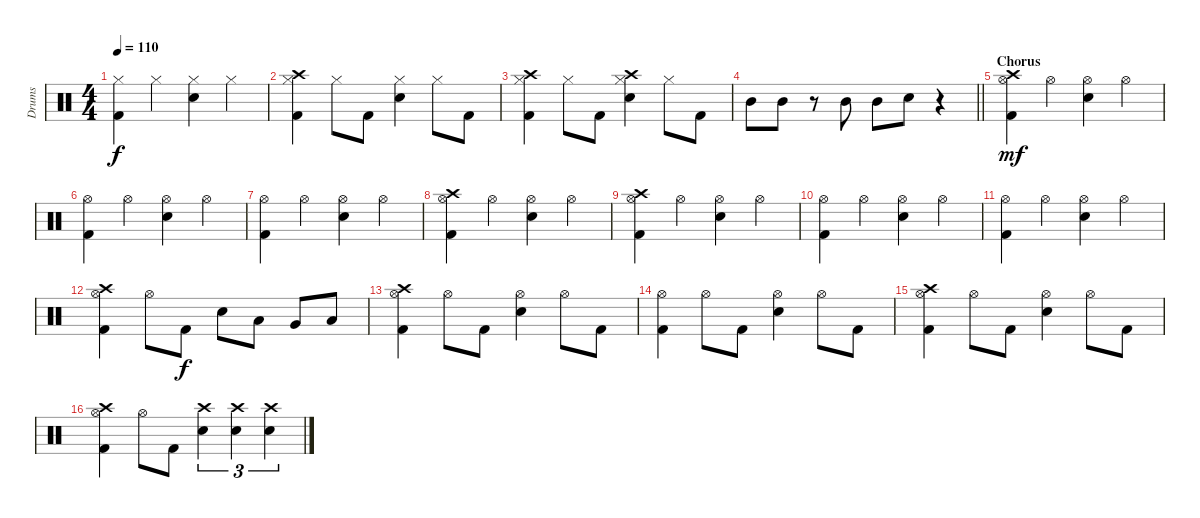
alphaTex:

\track ("Drums" "Drums") {instrument percussion}
\staff {score}
\articulation defaults
\ts (4 4)
\tempo 110
\clef neutral
\ks c
("Kick (hit) 2" "Hi-Hat (closed)").4{dy f} "Hi-Hat (closed)".4 ("Snare (hit) 2" "Hi-Hat (closed)").4 "Hi-Hat (closed)".4 |
("Kick (hit) 2" "Hi-Hat (closed)" "Crash high (hit)").4 "Hi-Hat (closed)".8 "Kick (hit) 2".8 ("Snare (hit) 2" "Hi-Hat (closed)").4 "Hi-Hat (closed)".8 "Kick (hit) 2".8 |
("Kick (hit) 2" "Hi-Hat (closed)" "Crash high (hit)").4 "Hi-Hat (closed)".8 "Kick (hit) 2".8 ("Snare (hit) 2" "Hi-Hat (closed)" "Crash high (hit)").4 "Hi-Hat (closed)".8 "Kick (hit) 2".8 |
\barLineRight lightlight "Mid Tom (hit)".8 "Mid Tom (hit)".8
r.8 "Mid Tom (hit)".8 "Mid Tom (hit)".8 "Snare (hit) 2".8 r.4 |
\section ("" "Chorus")
("Kick (hit) 2" "Hi-Hat (open)" "Crash high (hit)").4{dy mf} "Hi-Hat (open)".4 ("Snare (hit) 2" "Hi-Hat (open)").4 "Hi-Hat (open)".4 |
("Kick (hit) 2" "Hi-Hat (open)").4 "Hi-Hat (open)".4 ("Snare (hit) 2" "Hi-Hat (open)").4 "Hi-Hat (open)".4 |
("Kick (hit) 2" "Hi-Hat (open)").4 "Hi-Hat (open)".4 ("Snare (hit) 2" "Hi-Hat (open)").4 "Hi-Hat (open)".4 |
("Kick (hit) 2" "Hi-Hat (open)" "Crash high (hit)").4 "Hi-Hat (open)".4 ("Snare (hit) 2" "Hi-Hat (open)").4 "Hi-Hat (open)".4 |
("Kick (hit) 2" "Hi-Hat (open)" "Crash high (hit)").4 "Hi-Hat (open)".4 ("Snare (hit) 2" "Hi-Hat (open)").4 "Hi-Hat (open)".4 |
("Kick (hit) 2" "Hi-Hat (open)").4 "Hi-Hat (open)".4 ("Snare (hit) 2" "Hi-Hat (open)").4 "Hi-Hat (open)".4 |
("Kick (hit) 2" "Hi-Hat (open)").4 "Hi-Hat (open)".4 ("Snare (hit) 2" "Hi-Hat (open)").4 "Hi-Hat (open)".4 |
("Kick (hit) 2" "Hi-Hat (open)" "Crash high (hit)").4 "Hi-Hat (open)".8 "Kick (hit) 2".8{dy f} "Snare (hit) 2".8 "Low Tom (hit)".8 "Very Low Tom (hit)".8 "Low Floor Tom (hit)".8 |
("Kick (hit) 2" "Hi-Hat (open)" "Crash high (hit)").4 "Hi-Hat (open)".8 "Kick (hit) 2".8 ("Snare (hit) 2" "Hi-Hat (open)").4 "Hi-Hat (open)".8 "Kick (hit) 2".8 |
("Kick (hit) 2" "Hi-Hat (open)").4 "Hi-Hat (open)".8 "Kick (hit) 2".8 ("Snare (hit) 2" "Hi-Hat (open)").4 "Hi-Hat (open)".8 "Kick (hit) 2".8 |
("Kick (hit) 2" "Hi-Hat (open)" "Crash high (hit)").4 "Hi-Hat (open)".8 "Kick (hit) 2".8 ("Snare (hit) 2" "Hi-Hat (open)").4 "Hi-Hat (open)".8 "Kick (hit) 2".8 |
("Kick (hit) 2" "Hi-Hat (open)" "Crash high (hit)").4 "Hi-Hat (open)".8 "Kick (hit) 2".8 ("Snare (hit) 2" "Crash high (hit)").4{tu (3 2)} ("Snare (hit) 2" "Crash high (hit)").4{tu (3 2)} ("Snare (hit) 2" "Crash high (hit)").4{tu (3 2)}
